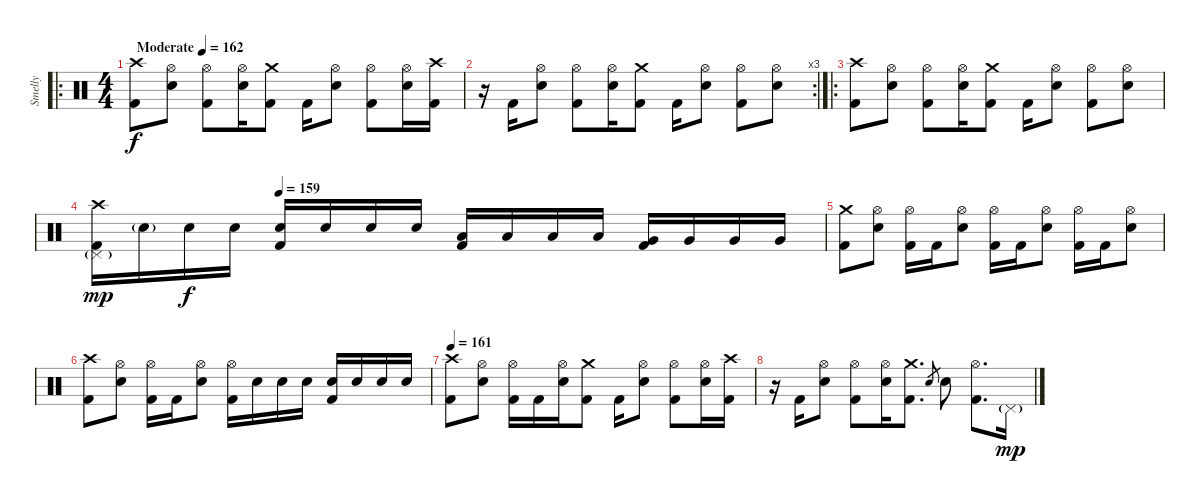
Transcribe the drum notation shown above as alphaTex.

\track ("Smelly" "Smelly") {instrument percussion}
\staff {score}
\articulation defaults
\ro
\ts (4 4)
\tempo (162 "Moderate")
\clef neutral
\ks c
("Crash high (hit)" "Kick (hit) 2").8{dy f} ("Hi-Hat (open)" "Electric Snare (hit)").8 ("Hi-Hat (open)" "Kick (hit) 2").8 ("Hi-Hat (open)" "Electric Snare (hit)").16 ("Crash medium (hit)" "Kick (hit) 2").8 "Kick (hit) 2".16 ("Hi-Hat (open)" "Electric Snare (hit)").8 ("Hi-Hat (open)" "Kick (hit) 2").8 ("Hi-Hat (open)" "Electric Snare (hit)").16 ("Crash high (hit)" "Kick (hit) 2").16 |
\rc 3
r.16 "Kick (hit) 2".16 ("Hi-Hat (open)" "Electric Snare (hit)").8 ("Hi-Hat (open)" "Kick (hit) 2").8 ("Hi-Hat (open)" "Electric Snare (hit)").16 ("Crash medium (hit)" "Kick (hit) 2").8 "Kick (hit) 2".16 ("Hi-Hat (open)" "Electric Snare (hit)").8 ("Hi-Hat (open)" "Kick (hit) 2").8 ("Hi-Hat (open)" "Electric Snare (hit)").8 |
\ro
("Crash high (hit)" "Kick (hit) 2").8 ("Hi-Hat (open)" "Electric Snare (hit)").8 ("Hi-Hat (open)" "Kick (hit) 2").8 ("Hi-Hat (open)" "Electric Snare (hit)").16 ("Crash medium (hit)" "Kick (hit) 2").8 "Kick (hit) 2".16 ("Hi-Hat (open)" "Electric Snare (hit)").8 ("Hi-Hat (open)" "Kick (hit) 2").8 ("Hi-Hat (open)" "Electric Snare (hit)").8 |
\tempo (159 0.25)
("Pedal Hi-Hat (hit)"{g} "Crash high (hit)" "Kick (hit) 2").16{dy mp} "Electric Snare (hit)"{g}.16 "Electric Snare (hit)".16{dy f} "Electric Snare (hit)".16 ("Electric Snare (hit)" "Kick (hit) 2").16 "Electric Snare (hit)".16 "Electric Snare (hit)".16 "Electric Snare (hit)".16 ("Low Tom (hit)" "Kick (hit) 2").16 "Low Tom (hit)".16 "Low Tom (hit)".16 "Low Tom (hit)".16 ("Very Low Tom (hit)" "Kick (hit) 2").16 "Very Low Tom (hit)".16 "Very Low Tom (hit)".16 "Very Low Tom (hit)".16 |
("Crash medium (hit)" "Kick (hit) 2").8 ("Hi-Hat (open)" "Electric Snare (hit)").8 ("Hi-Hat (open)" "Kick (hit) 2").16 "Kick (hit) 2".16 ("Hi-Hat (open)" "Electric Snare (hit)").8 ("Hi-Hat (open)" "Kick (hit) 2").16 "Kick (hit) 2".16 ("Hi-Hat (open)" "Electric Snare (hit)").8 ("Hi-Hat (open)" "Kick (hit) 2").16 "Kick (hit) 2".16 ("Hi-Hat (open)" "Electric Snare (hit)").8 |
("Crash high (hit)" "Kick (hit) 2").8 ("Hi-Hat (open)" "Electric Snare (hit)").8 ("Hi-Hat (open)" "Kick (hit) 2").16 "Kick (hit) 2".16 ("Hi-Hat (open)" "Electric Snare (hit)").8 ("Hi-Hat (open)" "Kick (hit) 2").16 "Electric Snare (hit)".16 "Electric Snare (hit)".16 "Electric Snare (hit)".16 ("Electric Snare (hit)" "Kick (hit) 2").16 "Electric Snare (hit)".16 "Electric Snare (hit)".16 "Electric Snare (hit)".16 |
\tempo 161
("Crash high (hit)" "Kick (hit) 2").8 ("Hi-Hat (open)" "Electric Snare (hit)").8 ("Hi-Hat (open)" "Kick (hit) 2").16 "Kick (hit) 2".16 ("Hi-Hat (open)" "Electric Snare (hit)").16 ("Crash medium (hit)" "Kick (hit) 2").8 "Kick (hit) 2".16 ("Hi-Hat (open)" "Electric Snare (hit)").8 ("Hi-Hat (open)" "Kick (hit) 2").8 ("Hi-Hat (open)" "Electric Snare (hit)").16 ("Crash high (hit)" "Kick (hit) 2").16 |
r.16 "Kick (hit) 2".16 ("Hi-Hat (open)" "Electric Snare (hit)").8 ("Hi-Hat (open)" "Kick (hit) 2").8 ("Hi-Hat (open)" "Electric Snare (hit)").16 ("Crash medium (hit)" "Kick (hit) 2").8{d} "Electric Snare (hit)".8{gr} "Electric Snare (hit)".8 ("Hi-Hat (open)" "Kick (hit) 2").8{d} "Pedal Hi-Hat (hit)"{g}.16{dy mp}
